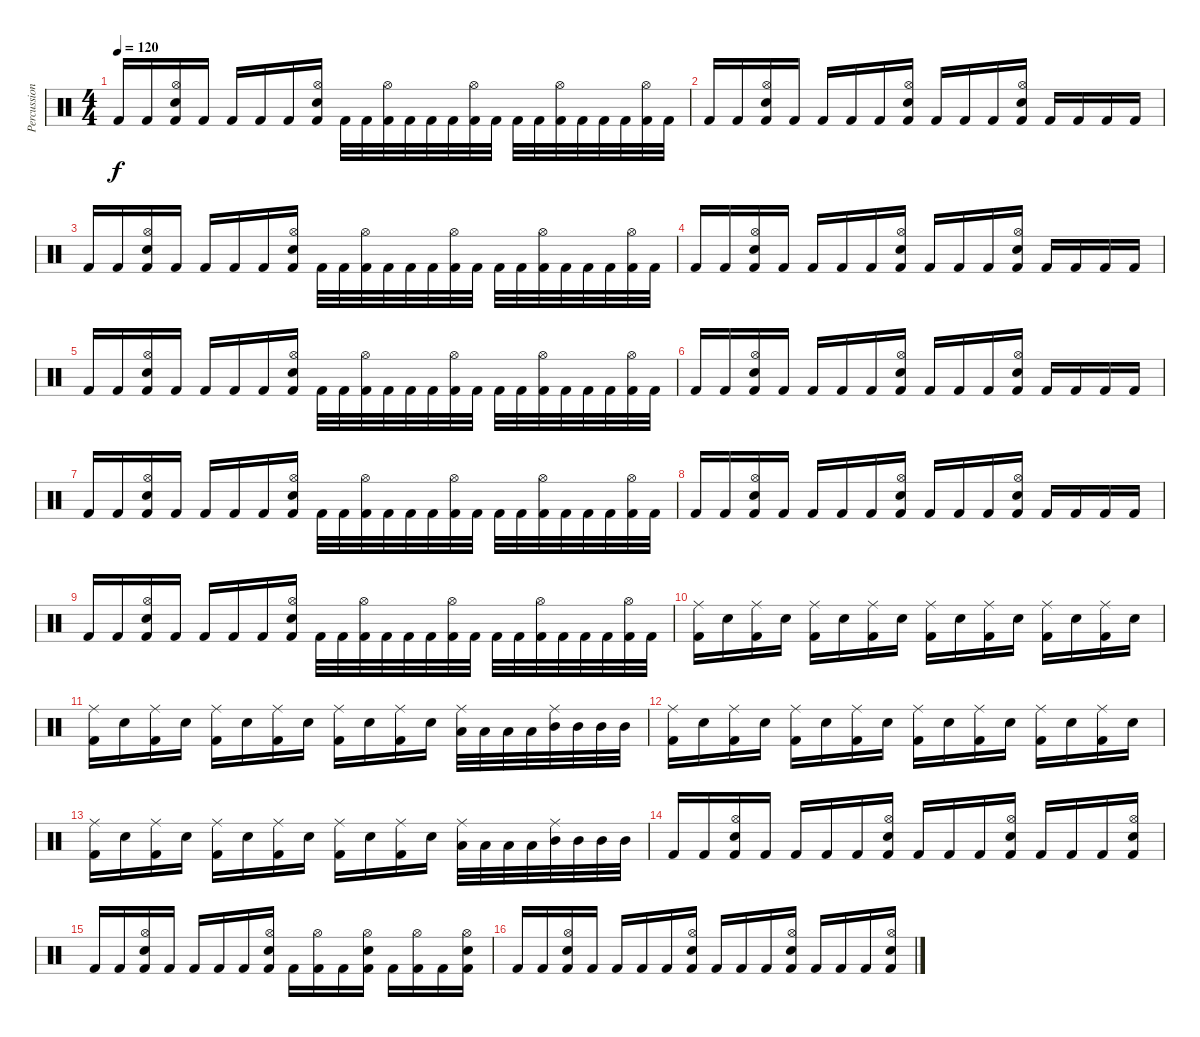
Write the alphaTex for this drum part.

\track ("Percussion" "Percussion") {instrument percussion}
\staff {score}
\articulation defaults
\ts (4 4)
\tempo 120
\clef neutral
\ks c "Kick (hit) 2".16{dy f} "Kick (hit) 2".16
("Hi-Hat (open)" "Electric Snare (hit)" "Kick (hit) 2").16 "Kick (hit) 2".16 "Kick (hit) 2".16 "Kick (hit) 2".16 "Kick (hit) 2".16 ("Hi-Hat (open)" "Electric Snare (hit)" "Kick (hit) 2").16 "Kick (hit) 2".32 "Kick (hit) 2".32 ("Hi-Hat (open)" "Kick (hit) 2").32 "Kick (hit) 2".32 "Kick (hit) 2".32 "Kick (hit) 2".32 ("Hi-Hat (open)" "Kick (hit) 2").32 "Kick (hit) 2".32 "Kick (hit) 2".32 "Kick (hit) 2".32 ("Hi-Hat (open)" "Kick (hit) 2").32 "Kick (hit) 2".32 "Kick (hit) 2".32 "Kick (hit) 2".32 ("Hi-Hat (open)" "Kick (hit) 2").32 "Kick (hit) 2".32 |
"Kick (hit) 2".16 "Kick (hit) 2".16 ("Hi-Hat (open)" "Electric Snare (hit)" "Kick (hit) 2").16 "Kick (hit) 2".16 "Kick (hit) 2".16 "Kick (hit) 2".16 "Kick (hit) 2".16 ("Hi-Hat (open)" "Electric Snare (hit)" "Kick (hit) 2").16 "Kick (hit) 2".16 "Kick (hit) 2".16 "Kick (hit) 2".16 ("Hi-Hat (open)" "Electric Snare (hit)" "Kick (hit) 2").16 "Kick (hit) 2".16 "Kick (hit) 2".16 "Kick (hit) 2".16 "Kick (hit) 2".16 |
"Kick (hit) 2".16 "Kick (hit) 2".16 ("Hi-Hat (open)" "Electric Snare (hit)" "Kick (hit) 2").16 "Kick (hit) 2".16 "Kick (hit) 2".16 "Kick (hit) 2".16 "Kick (hit) 2".16 ("Hi-Hat (open)" "Electric Snare (hit)" "Kick (hit) 2").16 "Kick (hit) 2".32 "Kick (hit) 2".32 ("Hi-Hat (open)" "Kick (hit) 2").32 "Kick (hit) 2".32 "Kick (hit) 2".32 "Kick (hit) 2".32 ("Hi-Hat (open)" "Kick (hit) 2").32 "Kick (hit) 2".32 "Kick (hit) 2".32 "Kick (hit) 2".32 ("Hi-Hat (open)" "Kick (hit) 2").32 "Kick (hit) 2".32 "Kick (hit) 2".32 "Kick (hit) 2".32 ("Hi-Hat (open)" "Kick (hit) 2").32 "Kick (hit) 2".32 |
"Kick (hit) 2".16 "Kick (hit) 2".16 ("Hi-Hat (open)" "Electric Snare (hit)" "Kick (hit) 2").16 "Kick (hit) 2".16 "Kick (hit) 2".16 "Kick (hit) 2".16 "Kick (hit) 2".16 ("Hi-Hat (open)" "Electric Snare (hit)" "Kick (hit) 2").16 "Kick (hit) 2".16 "Kick (hit) 2".16 "Kick (hit) 2".16 ("Hi-Hat (open)" "Electric Snare (hit)" "Kick (hit) 2").16 "Kick (hit) 2".16 "Kick (hit) 2".16 "Kick (hit) 2".16 "Kick (hit) 2".16 |
"Kick (hit) 2".16 "Kick (hit) 2".16 ("Hi-Hat (open)" "Electric Snare (hit)" "Kick (hit) 2").16 "Kick (hit) 2".16 "Kick (hit) 2".16 "Kick (hit) 2".16 "Kick (hit) 2".16 ("Hi-Hat (open)" "Electric Snare (hit)" "Kick (hit) 2").16 "Kick (hit) 2".32 "Kick (hit) 2".32 ("Hi-Hat (open)" "Kick (hit) 2").32 "Kick (hit) 2".32 "Kick (hit) 2".32 "Kick (hit) 2".32 ("Hi-Hat (open)" "Kick (hit) 2").32 "Kick (hit) 2".32 "Kick (hit) 2".32 "Kick (hit) 2".32 ("Hi-Hat (open)" "Kick (hit) 2").32 "Kick (hit) 2".32 "Kick (hit) 2".32 "Kick (hit) 2".32 ("Hi-Hat (open)" "Kick (hit) 2").32 "Kick (hit) 2".32 |
"Kick (hit) 2".16 "Kick (hit) 2".16 ("Hi-Hat (open)" "Electric Snare (hit)" "Kick (hit) 2").16 "Kick (hit) 2".16 "Kick (hit) 2".16 "Kick (hit) 2".16 "Kick (hit) 2".16 ("Hi-Hat (open)" "Electric Snare (hit)" "Kick (hit) 2").16 "Kick (hit) 2".16 "Kick (hit) 2".16 "Kick (hit) 2".16 ("Hi-Hat (open)" "Electric Snare (hit)" "Kick (hit) 2").16 "Kick (hit) 2".16 "Kick (hit) 2".16 "Kick (hit) 2".16 "Kick (hit) 2".16 |
"Kick (hit) 2".16 "Kick (hit) 2".16 ("Hi-Hat (open)" "Electric Snare (hit)" "Kick (hit) 2").16 "Kick (hit) 2".16 "Kick (hit) 2".16 "Kick (hit) 2".16 "Kick (hit) 2".16 ("Hi-Hat (open)" "Electric Snare (hit)" "Kick (hit) 2").16 "Kick (hit) 2".32 "Kick (hit) 2".32 ("Hi-Hat (open)" "Kick (hit) 2").32 "Kick (hit) 2".32 "Kick (hit) 2".32 "Kick (hit) 2".32 ("Hi-Hat (open)" "Kick (hit) 2").32 "Kick (hit) 2".32 "Kick (hit) 2".32 "Kick (hit) 2".32 ("Hi-Hat (open)" "Kick (hit) 2").32 "Kick (hit) 2".32 "Kick (hit) 2".32 "Kick (hit) 2".32 ("Hi-Hat (open)" "Kick (hit) 2").32 "Kick (hit) 2".32 |
"Kick (hit) 2".16 "Kick (hit) 2".16 ("Hi-Hat (open)" "Electric Snare (hit)" "Kick (hit) 2").16 "Kick (hit) 2".16 "Kick (hit) 2".16 "Kick (hit) 2".16 "Kick (hit) 2".16 ("Hi-Hat (open)" "Electric Snare (hit)" "Kick (hit) 2").16 "Kick (hit) 2".16 "Kick (hit) 2".16 "Kick (hit) 2".16 ("Hi-Hat (open)" "Electric Snare (hit)" "Kick (hit) 2").16 "Kick (hit) 2".16 "Kick (hit) 2".16 "Kick (hit) 2".16 "Kick (hit) 2".16 |
"Kick (hit) 2".16 "Kick (hit) 2".16 ("Hi-Hat (open)" "Electric Snare (hit)" "Kick (hit) 2").16 "Kick (hit) 2".16 "Kick (hit) 2".16 "Kick (hit) 2".16 "Kick (hit) 2".16 ("Hi-Hat (open)" "Electric Snare (hit)" "Kick (hit) 2").16 "Kick (hit) 2".32 "Kick (hit) 2".32 ("Hi-Hat (open)" "Kick (hit) 2").32 "Kick (hit) 2".32 "Kick (hit) 2".32 "Kick (hit) 2".32 ("Hi-Hat (open)" "Kick (hit) 2").32 "Kick (hit) 2".32 "Kick (hit) 2".32 "Kick (hit) 2".32 ("Hi-Hat (open)" "Kick (hit) 2").32 "Kick (hit) 2".32 "Kick (hit) 2".32 "Kick (hit) 2".32 ("Hi-Hat (open)" "Kick (hit) 2").32 "Kick (hit) 2".32 |
("Ride (middle)" "Kick (hit) 2").16 "Snare (hit) 2".16 ("Ride (middle)" "Kick (hit) 2").16 "Snare (hit) 2".16 ("Ride (middle)" "Kick (hit) 2").16 "Snare (hit) 2".16 ("Ride (middle)" "Kick (hit) 2").16 "Snare (hit) 2".16 ("Ride (middle)" "Kick (hit) 2").16 "Snare (hit) 2".16 ("Ride (middle)" "Kick (hit) 2").16 "Snare (hit) 2".16 ("Ride (middle)" "Kick (hit) 2").16 "Snare (hit) 2".16 ("Ride (middle)" "Kick (hit) 2").16 "Snare (hit) 2".16 |
("Ride (middle)" "Kick (hit) 2").16 "Snare (hit) 2".16 ("Ride (middle)" "Kick (hit) 2").16 "Snare (hit) 2".16 ("Ride (middle)" "Kick (hit) 2").16 "Snare (hit) 2".16 ("Ride (middle)" "Kick (hit) 2").16 "Snare (hit) 2".16 ("Ride (middle)" "Kick (hit) 2").16 "Snare (hit) 2".16 ("Ride (middle)" "Kick (hit) 2").16 "Snare (hit) 2".16 ("Ride (middle)" "Low Tom (hit)").32 "Low Tom (hit)".32 "Low Tom (hit)".32 "Low Tom (hit)".32 ("Ride (middle)" "Mid Tom (hit)").32 "Mid Tom (hit)".32 "Mid Tom (hit)".32 "Mid Tom (hit)".32 |
("Ride (middle)" "Kick (hit) 2").16 "Snare (hit) 2".16 ("Ride (middle)" "Kick (hit) 2").16 "Snare (hit) 2".16 ("Ride (middle)" "Kick (hit) 2").16 "Snare (hit) 2".16 ("Ride (middle)" "Kick (hit) 2").16 "Snare (hit) 2".16 ("Ride (middle)" "Kick (hit) 2").16 "Snare (hit) 2".16 ("Ride (middle)" "Kick (hit) 2").16 "Snare (hit) 2".16 ("Ride (middle)" "Kick (hit) 2").16 "Snare (hit) 2".16 ("Ride (middle)" "Kick (hit) 2").16 "Snare (hit) 2".16 |
("Ride (middle)" "Kick (hit) 2").16 "Snare (hit) 2".16 ("Ride (middle)" "Kick (hit) 2").16 "Snare (hit) 2".16 ("Ride (middle)" "Kick (hit) 2").16 "Snare (hit) 2".16 ("Ride (middle)" "Kick (hit) 2").16 "Snare (hit) 2".16 ("Ride (middle)" "Kick (hit) 2").16 "Snare (hit) 2".16 ("Ride (middle)" "Kick (hit) 2").16 "Snare (hit) 2".16 ("Ride (middle)" "Low Tom (hit)").32 "Low Tom (hit)".32 "Low Tom (hit)".32 "Low Tom (hit)".32 ("Ride (middle)" "Mid Tom (hit)").32 "Mid Tom (hit)".32 "Mid Tom (hit)".32 "Mid Tom (hit)".32 |
"Kick (hit) 2".16 "Kick (hit) 2".16 ("Hi-Hat (open)" "Electric Snare (hit)" "Kick (hit) 2").16 "Kick (hit) 2".16 "Kick (hit) 2".16 "Kick (hit) 2".16 "Kick (hit) 2".16 ("Hi-Hat (open)" "Electric Snare (hit)" "Kick (hit) 2").16 "Kick (hit) 2".16 "Kick (hit) 2".16 "Kick (hit) 2".16 ("Hi-Hat (open)" "Electric Snare (hit)" "Kick (hit) 2").16 "Kick (hit) 2".16 "Kick (hit) 2".16 "Kick (hit) 2".16 ("Hi-Hat (open)" "Electric Snare (hit)" "Kick (hit) 2").16 |
"Kick (hit) 2".16 "Kick (hit) 2".16 ("Hi-Hat (open)" "Electric Snare (hit)" "Kick (hit) 2").16 "Kick (hit) 2".16 "Kick (hit) 2".16 "Kick (hit) 2".16 "Kick (hit) 2".16 ("Hi-Hat (open)" "Electric Snare (hit)" "Kick (hit) 2").16 "Kick (hit) 2".16 ("Hi-Hat (open)" "Kick (hit) 2").16 "Kick (hit) 2".16 ("Hi-Hat (open)" "Electric Snare (hit)" "Kick (hit) 2").16 "Kick (hit) 2".16 ("Hi-Hat (open)" "Kick (hit) 2").16 "Kick (hit) 2".16 ("Hi-Hat (open)" "Electric Snare (hit)" "Kick (hit) 2").16 |
"Kick (hit) 2".16 "Kick (hit) 2".16 ("Hi-Hat (open)" "Electric Snare (hit)" "Kick (hit) 2").16 "Kick (hit) 2".16 "Kick (hit) 2".16 "Kick (hit) 2".16 "Kick (hit) 2".16 ("Hi-Hat (open)" "Electric Snare (hit)" "Kick (hit) 2").16 "Kick (hit) 2".16 "Kick (hit) 2".16 "Kick (hit) 2".16 ("Hi-Hat (open)" "Electric Snare (hit)" "Kick (hit) 2").16 "Kick (hit) 2".16 "Kick (hit) 2".16 "Kick (hit) 2".16 ("Hi-Hat (open)" "Electric Snare (hit)" "Kick (hit) 2").16
